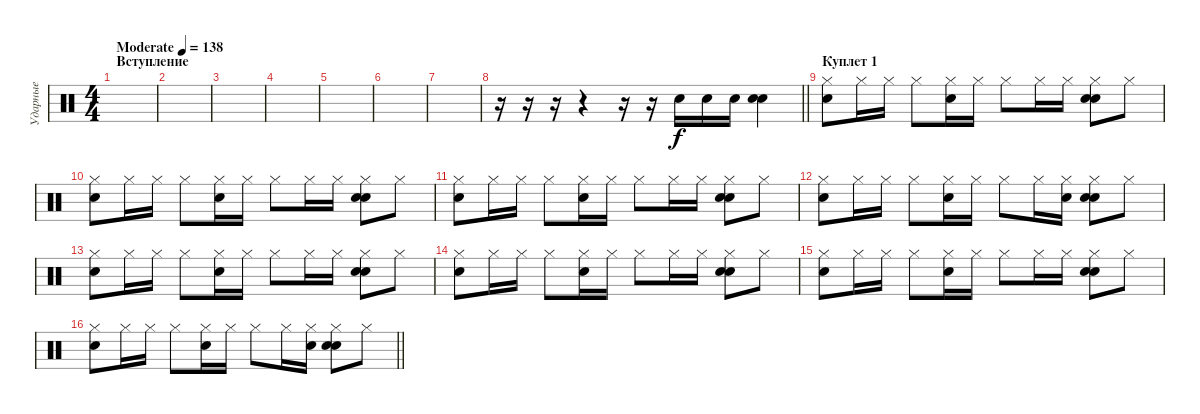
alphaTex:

\track ("Ударные" "Ударные") {instrument percussion}
\staff {score}
\articulation defaults
\ts (4 4)
\section ("" "Вступление")
\tempo (138 "Moderate")
\clef neutral
\ks c
|
|
|
|
|
|
|
\barLineRight lightlight
r.16 r.16 r.16 r.4 r.16 r.16 "Snare (hit) 2".16 "Snare (hit) 2".16 "Snare (hit) 2".16 ("Electric Snare (hit)" "Snare (hit) 2").4 |
\section ("" "Куплет 1")
("Hi-Hat (closed)" "Snare (hit) 2").8 "Hi-Hat (closed)".16 "Hi-Hat (closed)".16 "Hi-Hat (closed)".8 ("Hi-Hat (closed)" "Snare (hit) 2").16 "Hi-Hat (closed)".16 "Hi-Hat (closed)".8 "Hi-Hat (closed)".16 "Hi-Hat (closed)".16 ("Hi-Hat (closed)" "Snare (hit) 2" "Electric Snare (hit)").8 "Hi-Hat (closed)".8 |
("Hi-Hat (closed)" "Snare (hit) 2").8 "Hi-Hat (closed)".16 "Hi-Hat (closed)".16 "Hi-Hat (closed)".8 ("Hi-Hat (closed)" "Snare (hit) 2").16 "Hi-Hat (closed)".16 "Hi-Hat (closed)".8 "Hi-Hat (closed)".16 "Hi-Hat (closed)".16 ("Hi-Hat (closed)" "Snare (hit) 2" "Electric Snare (hit)").8 "Hi-Hat (closed)".8 |
("Hi-Hat (closed)" "Snare (hit) 2").8 "Hi-Hat (closed)".16 "Hi-Hat (closed)".16 "Hi-Hat (closed)".8 ("Hi-Hat (closed)" "Snare (hit) 2").16 "Hi-Hat (closed)".16 "Hi-Hat (closed)".8 "Hi-Hat (closed)".16 "Hi-Hat (closed)".16 ("Hi-Hat (closed)" "Snare (hit) 2" "Electric Snare (hit)").8 "Hi-Hat (closed)".8 |
("Hi-Hat (closed)" "Snare (hit) 2").8 "Hi-Hat (closed)".16 "Hi-Hat (closed)".16 "Hi-Hat (closed)".8 ("Hi-Hat (closed)" "Snare (hit) 2").16 "Hi-Hat (closed)".16 "Hi-Hat (closed)".8 "Hi-Hat (closed)".16 ("Hi-Hat (closed)" "Electric Snare (hit)").16 ("Hi-Hat (closed)" "Snare (hit) 2" "Electric Snare (hit)").8 "Hi-Hat (closed)".8 |
("Hi-Hat (closed)" "Snare (hit) 2").8 "Hi-Hat (closed)".16 "Hi-Hat (closed)".16 "Hi-Hat (closed)".8 ("Hi-Hat (closed)" "Snare (hit) 2").16 "Hi-Hat (closed)".16 "Hi-Hat (closed)".8 "Hi-Hat (closed)".16 "Hi-Hat (closed)".16 ("Hi-Hat (closed)" "Snare (hit) 2" "Electric Snare (hit)").8 "Hi-Hat (closed)".8 |
("Hi-Hat (closed)" "Snare (hit) 2").8 "Hi-Hat (closed)".16 "Hi-Hat (closed)".16 "Hi-Hat (closed)".8 ("Hi-Hat (closed)" "Snare (hit) 2").16 "Hi-Hat (closed)".16 "Hi-Hat (closed)".8 "Hi-Hat (closed)".16 "Hi-Hat (closed)".16 ("Hi-Hat (closed)" "Snare (hit) 2" "Electric Snare (hit)").8 "Hi-Hat (closed)".8 |
("Hi-Hat (closed)" "Snare (hit) 2").8 "Hi-Hat (closed)".16 "Hi-Hat (closed)".16 "Hi-Hat (closed)".8 ("Hi-Hat (closed)" "Snare (hit) 2").16 "Hi-Hat (closed)".16 "Hi-Hat (closed)".8 "Hi-Hat (closed)".16 "Hi-Hat (closed)".16 ("Hi-Hat (closed)" "Snare (hit) 2" "Electric Snare (hit)").8 "Hi-Hat (closed)".8 |
\barLineRight lightlight
("Hi-Hat (closed)" "Snare (hit) 2").8 "Hi-Hat (closed)".16 "Hi-Hat (closed)".16 "Hi-Hat (closed)".8 ("Hi-Hat (closed)" "Snare (hit) 2").16 "Hi-Hat (closed)".16 "Hi-Hat (closed)".8 "Hi-Hat (closed)".16 ("Hi-Hat (closed)" "Electric Snare (hit)").16 ("Hi-Hat (closed)" "Snare (hit) 2" "Electric Snare (hit)").8 "Hi-Hat (closed)".8
